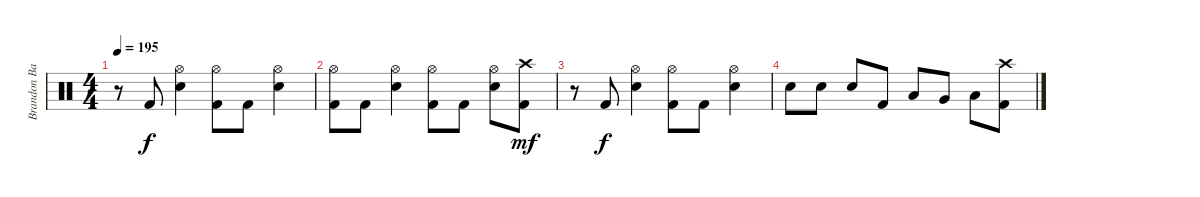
\track ("Brandon Barnes - Drums" "Brandon Ba") {instrument percussion}
\staff {score}
\articulation defaults
\ts (4 4)
\tempo 195
\clef neutral
\ks c
r.8{dy mf} "Kick (hit) 2".8{dy f} ("Snare (hit) 2" "Hi-Hat (open)").4 ("Kick (hit) 2" "Hi-Hat (open)").8 "Kick (hit) 2".8 ("Snare (hit) 2" "Hi-Hat (open)").4 |
("Kick (hit) 2" "Hi-Hat (open)").8 "Kick (hit) 2".8 ("Snare (hit) 2" "Hi-Hat (open)").4 ("Kick (hit) 2" "Hi-Hat (open)").8 "Kick (hit) 2".8 ("Snare (hit) 2" "Hi-Hat (open)").8 ("Kick (hit) 2" "Crash high (hit)").8{dy mf} |
r.8 "Kick (hit) 2".8{dy f} ("Snare (hit) 2" "Hi-Hat (open)").4 ("Kick (hit) 2" "Hi-Hat (open)").8 "Kick (hit) 2".8 ("Snare (hit) 2" "Hi-Hat (open)").4 |
"Snare (hit) 2".8 "Snare (hit) 2".8 "Snare (hit) 2".8 "Kick (hit) 2".8 "Low Tom (hit)".8 "Very Low Tom (hit)".8 "Low Floor Tom (hit)".8 ("Kick (hit) 2" "Crash high (hit)").8
